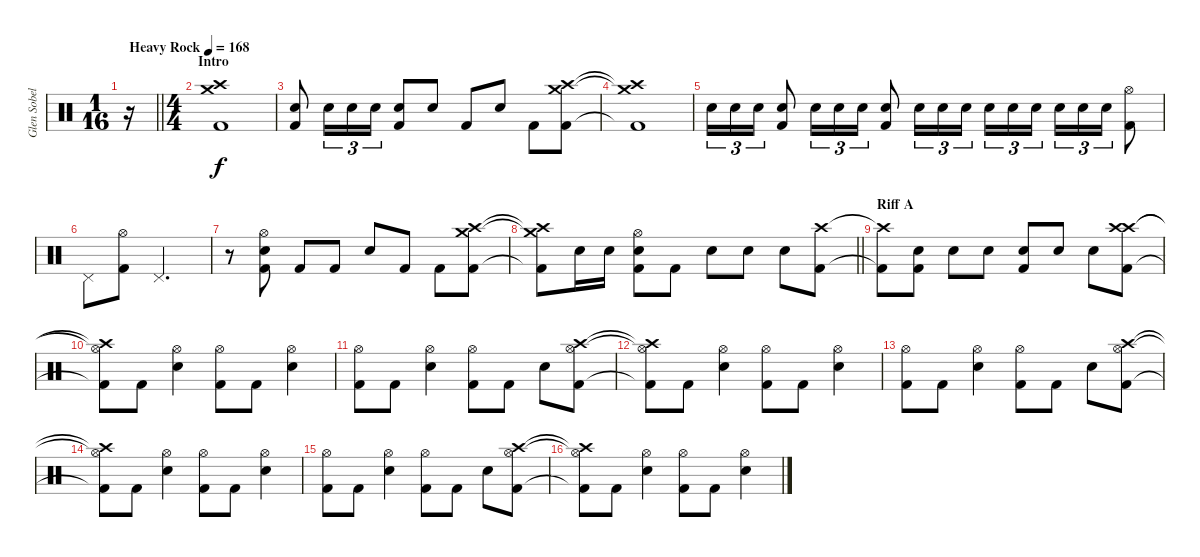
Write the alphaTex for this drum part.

\track ("Glen Sobel" "Glen Sobel") {instrument percussion}
\staff {score}
\articulation defaults
\ts (1 16)
\tempo (168 "Heavy Rock")
\clef neutral
\barLineRight lightlight
\ks c
r.16{dy f} |
\ts (4 4)
\section ("" "Intro")
("Crash medium (hit)" "Crash high (hit)" "Kick (hit) 2").1 |
("Snare (hit) 2" "Kick (hit) 2").8 "Snare (hit) 2".16{tu (3 2)} "Snare (hit) 2".16{tu (3 2)} "Snare (hit) 2".16{tu (3 2)} ("Snare (hit) 2" "Kick (hit) 2").8 "Snare (hit) 2".8 "Kick (hit) 2".8 "Snare (hit) 2".8 "Kick (hit) 2".8 ("Crash medium (hit)" "Crash high (hit)" "Kick (hit) 2").8 |
("Crash medium (hit)"{t} "Crash high (hit)"{t} "Kick (hit) 2"{t}).1 |
"Snare (hit) 2".16{tu (3 2)} "Snare (hit) 2".16{tu (3 2)} "Snare (hit) 2".16{tu (3 2)} ("Snare (hit) 2" "Kick (hit) 2").8 "Snare (hit) 2".16{tu (3 2)} "Snare (hit) 2".16{tu (3 2)} "Snare (hit) 2".16{tu (3 2)} ("Snare (hit) 2" "Kick (hit) 2").8 "Snare (hit) 2".16{tu (3 2)} "Snare (hit) 2".16{tu (3 2)} "Snare (hit) 2".16{tu (3 2) beam splitsecondary} "Snare (hit) 2".16{tu (3 2)} "Snare (hit) 2".16{tu (3 2)} "Snare (hit) 2".16{tu (3 2)} "Snare (hit) 2".16{tu (3 2)} "Snare (hit) 2".16{tu (3 2)} "Snare (hit) 2".16{tu (3 2)} ("Hi-Hat (open)" "Kick (hit) 2").8 |
"Pedal Hi-Hat (hit)".8 ("Hi-Hat (open)" "Kick (hit) 2").8 "Pedal Hi-Hat (hit)".2{d} |
r.8 ("Hi-Hat (open)" "Snare (hit) 2" "Kick (hit) 2").8 "Kick (hit) 2".8 "Kick (hit) 2".8 "Snare (hit) 2".8 "Kick (hit) 2".8 "Kick (hit) 2".8 ("Crash medium (hit)" "Crash high (hit)" "Kick (hit) 2").8 |
\barLineRight lightlight
("Crash medium (hit)"{t} "Crash high (hit)"{t} "Kick (hit) 2"{t}).8 "Snare (hit) 2".16 "Snare (hit) 2".16 ("Hi-Hat (open)" "Snare (hit) 2" "Kick (hit) 2").8 "Kick (hit) 2".8 "Snare (hit) 2".8 "Snare (hit) 2".8 "Snare (hit) 2".8 ("Crash high (hit)" "Kick (hit) 2").8 |
\section ("" "Riff A")
("Crash high (hit)"{t} "Kick (hit) 2"{t}).8 ("Snare (hit) 2" "Kick (hit) 2").8 "Snare (hit) 2".8 "Snare (hit) 2".8 ("Snare (hit) 2" "Kick (hit) 2").8 "Snare (hit) 2".8 "Snare (hit) 2".8 ("Crash high (hit)" "Crash high (hit)" "Kick (hit) 2").8 |
("Hi-Hat (open)"{t} "Crash high (hit)"{t} "Kick (hit) 2"{t}).8 "Kick (hit) 2".8 ("Hi-Hat (open)" "Snare (hit) 2").4 ("Hi-Hat (open)" "Kick (hit) 2").8 "Kick (hit) 2".8 ("Hi-Hat (open)" "Snare (hit) 2").4 |
("Hi-Hat (open)" "Kick (hit) 2").8 "Kick (hit) 2".8 ("Hi-Hat (open)" "Snare (hit) 2").4 ("Hi-Hat (open)" "Kick (hit) 2").8 "Kick (hit) 2".8 "Snare (hit) 2".8 ("Hi-Hat (open)" "Crash high (hit)" "Kick (hit) 2").8 |
("Hi-Hat (open)"{t} "Crash high (hit)"{t} "Kick (hit) 2"{t}).8 "Kick (hit) 2".8 ("Hi-Hat (open)" "Snare (hit) 2").4 ("Hi-Hat (open)" "Kick (hit) 2").8 "Kick (hit) 2".8 ("Hi-Hat (open)" "Snare (hit) 2").4 |
("Hi-Hat (open)" "Kick (hit) 2").8 "Kick (hit) 2".8 ("Hi-Hat (open)" "Snare (hit) 2").4 ("Hi-Hat (open)" "Kick (hit) 2").8 "Kick (hit) 2".8 "Snare (hit) 2".8 ("Hi-Hat (open)" "Crash high (hit)" "Kick (hit) 2").8 |
("Hi-Hat (open)"{t} "Crash high (hit)"{t} "Kick (hit) 2"{t}).8 "Kick (hit) 2".8 ("Hi-Hat (open)" "Snare (hit) 2").4 ("Hi-Hat (open)" "Kick (hit) 2").8 "Kick (hit) 2".8 ("Hi-Hat (open)" "Snare (hit) 2").4 |
("Hi-Hat (open)" "Kick (hit) 2").8 "Kick (hit) 2".8 ("Hi-Hat (open)" "Snare (hit) 2").4 ("Hi-Hat (open)" "Kick (hit) 2").8 "Kick (hit) 2".8 "Snare (hit) 2".8 ("Hi-Hat (open)" "Crash high (hit)" "Kick (hit) 2").8 |
("Hi-Hat (open)"{t} "Crash high (hit)"{t} "Kick (hit) 2"{t}).8 "Kick (hit) 2".8 ("Hi-Hat (open)" "Snare (hit) 2").4 ("Hi-Hat (open)" "Kick (hit) 2").8 "Kick (hit) 2".8 ("Hi-Hat (open)" "Snare (hit) 2").4
